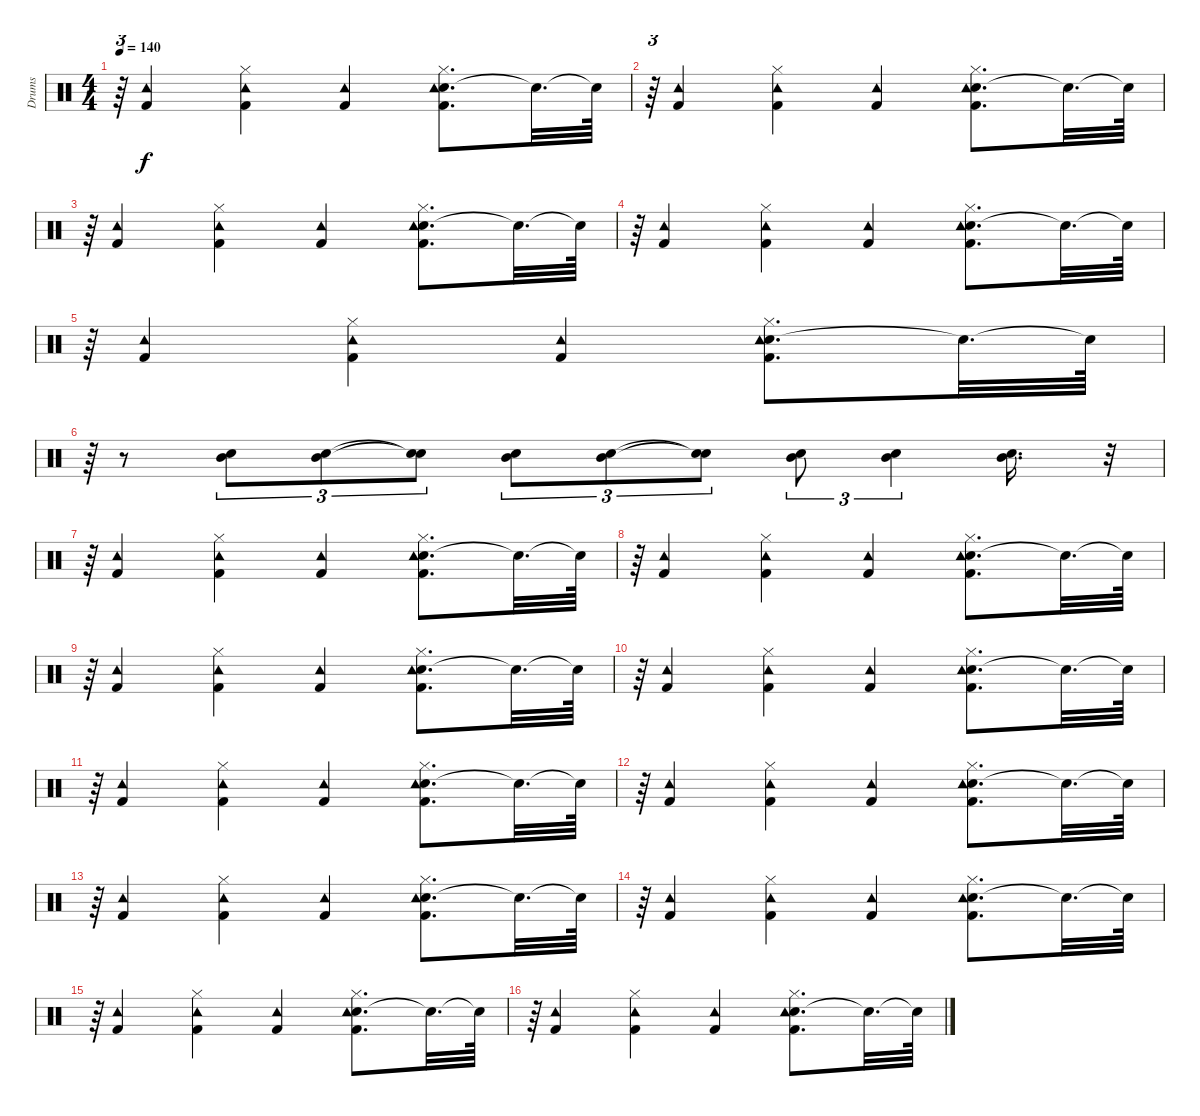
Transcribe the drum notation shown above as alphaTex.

\track ("Drums" "Drums") {instrument percussion}
\staff {score}
\articulation defaults
\ts (4 4)
\tempo 140
\clef neutral
\ks c
r.64{tu (3 2) dy f} ("Tambourine (hit)" "Kick (hit) 2").4 ("Hi-Hat (closed)" "Tambourine (hit)" "Kick (hit) 2").4 ("Tambourine (hit)" "Kick (hit) 2").4 ("Electric Snare (hit)" "Hi-Hat (closed)" "Tambourine (hit)" "Kick (hit) 2").8{d} "Snare (hit)"{t}.32{d} "Snare (hit)"{t}.64 |
r.64{tu (3 2)} ("Tambourine (hit)" "Kick (hit) 2").4 ("Hi-Hat (closed)" "Tambourine (hit)" "Kick (hit) 2").4 ("Tambourine (hit)" "Kick (hit) 2").4 ("Electric Snare (hit)" "Hi-Hat (closed)" "Tambourine (hit)" "Kick (hit) 2").8{d} "Snare (hit)"{t}.32{d} "Snare (hit)"{t}.64 |
r.64{tu (3 2)} ("Tambourine (hit)" "Kick (hit) 2").4 ("Hi-Hat (closed)" "Tambourine (hit)" "Kick (hit) 2").4 ("Tambourine (hit)" "Kick (hit) 2").4 ("Electric Snare (hit)" "Hi-Hat (closed)" "Tambourine (hit)" "Kick (hit) 2").8{d} "Snare (hit)"{t}.32{d} "Snare (hit)"{t}.64 |
r.64{tu (3 2)} ("Tambourine (hit)" "Kick (hit) 2").4 ("Hi-Hat (closed)" "Tambourine (hit)" "Kick (hit) 2").4 ("Tambourine (hit)" "Kick (hit) 2").4 ("Electric Snare (hit)" "Hi-Hat (closed)" "Tambourine (hit)" "Kick (hit) 2").8{d} "Snare (hit)"{t}.32{d} "Snare (hit)"{t}.64 |
r.64{tu (3 2)} ("Tambourine (hit)" "Kick (hit) 2").4 ("Hi-Hat (closed)" "Tambourine (hit)" "Kick (hit) 2").4 ("Tambourine (hit)" "Kick (hit) 2").4 ("Electric Snare (hit)" "Hi-Hat (closed)" "Tambourine (hit)" "Kick (hit) 2").8{d} "Snare (hit)"{t}.32{d} "Snare (hit)"{t}.64 |
r.64{tu (3 2)} r.8 ("Mid Tom (hit)" "Electric Snare (hit)").8{tu (3 2)} ("Mid Tom (hit)" "Electric Snare (hit)").8{tu (3 2)} ("Snare (hit)"{t} "Snare (hit)"{t}).8{tu (3 2)} ("Mid Tom (hit)" "Electric Snare (hit)").8{tu (3 2)} ("Mid Tom (hit)" "Electric Snare (hit)").8{tu (3 2)} ("Snare (hit)"{t} "Snare (hit)"{t}).8{tu (3 2)} ("Mid Tom (hit)" "Electric Snare (hit)").8{tu (3 2)} ("Mid Tom (hit)" "Electric Snare (hit)").4{tu (3 2)} ("Mid Tom (hit)" "Electric Snare (hit)").16{d} r.32{tu (3 2)} |
r.64{tu (3 2)} ("Tambourine (hit)" "Kick (hit) 2").4 ("Hi-Hat (closed)" "Tambourine (hit)" "Kick (hit) 2").4 ("Tambourine (hit)" "Kick (hit) 2").4 ("Electric Snare (hit)" "Hi-Hat (closed)" "Tambourine (hit)" "Kick (hit) 2").8{d} "Snare (hit)"{t}.32{d} "Snare (hit)"{t}.64 |
r.64{tu (3 2)} ("Tambourine (hit)" "Kick (hit) 2").4 ("Hi-Hat (closed)" "Tambourine (hit)" "Kick (hit) 2").4 ("Tambourine (hit)" "Kick (hit) 2").4 ("Electric Snare (hit)" "Hi-Hat (closed)" "Tambourine (hit)" "Kick (hit) 2").8{d} "Snare (hit)"{t}.32{d} "Snare (hit)"{t}.64 |
r.64{tu (3 2)} ("Tambourine (hit)" "Kick (hit) 2").4 ("Hi-Hat (closed)" "Tambourine (hit)" "Kick (hit) 2").4 ("Tambourine (hit)" "Kick (hit) 2").4 ("Electric Snare (hit)" "Hi-Hat (closed)" "Tambourine (hit)" "Kick (hit) 2").8{d} "Snare (hit)"{t}.32{d} "Snare (hit)"{t}.64 |
r.64{tu (3 2)} ("Tambourine (hit)" "Kick (hit) 2").4 ("Hi-Hat (closed)" "Tambourine (hit)" "Kick (hit) 2").4 ("Tambourine (hit)" "Kick (hit) 2").4 ("Electric Snare (hit)" "Hi-Hat (closed)" "Tambourine (hit)" "Kick (hit) 2").8{d} "Snare (hit)"{t}.32{d} "Snare (hit)"{t}.64 |
r.64{tu (3 2)} ("Tambourine (hit)" "Kick (hit) 2").4 ("Hi-Hat (closed)" "Tambourine (hit)" "Kick (hit) 2").4 ("Tambourine (hit)" "Kick (hit) 2").4 ("Electric Snare (hit)" "Hi-Hat (closed)" "Tambourine (hit)" "Kick (hit) 2").8{d} "Snare (hit)"{t}.32{d} "Snare (hit)"{t}.64 |
r.64{tu (3 2)} ("Tambourine (hit)" "Kick (hit) 2").4 ("Hi-Hat (closed)" "Tambourine (hit)" "Kick (hit) 2").4 ("Tambourine (hit)" "Kick (hit) 2").4 ("Electric Snare (hit)" "Hi-Hat (closed)" "Tambourine (hit)" "Kick (hit) 2").8{d} "Snare (hit)"{t}.32{d} "Snare (hit)"{t}.64 |
r.64{tu (3 2)} ("Tambourine (hit)" "Kick (hit) 2").4 ("Hi-Hat (closed)" "Tambourine (hit)" "Kick (hit) 2").4 ("Tambourine (hit)" "Kick (hit) 2").4 ("Electric Snare (hit)" "Hi-Hat (closed)" "Tambourine (hit)" "Kick (hit) 2").8{d} "Snare (hit)"{t}.32{d} "Snare (hit)"{t}.64 |
r.64{tu (3 2)} ("Tambourine (hit)" "Kick (hit) 2").4 ("Hi-Hat (closed)" "Tambourine (hit)" "Kick (hit) 2").4 ("Tambourine (hit)" "Kick (hit) 2").4 ("Electric Snare (hit)" "Hi-Hat (closed)" "Tambourine (hit)" "Kick (hit) 2").8{d} "Snare (hit)"{t}.32{d} "Snare (hit)"{t}.64 |
r.64{tu (3 2)} ("Tambourine (hit)" "Kick (hit) 2").4 ("Hi-Hat (closed)" "Tambourine (hit)" "Kick (hit) 2").4 ("Tambourine (hit)" "Kick (hit) 2").4 ("Electric Snare (hit)" "Hi-Hat (closed)" "Tambourine (hit)" "Kick (hit) 2").8{d} "Snare (hit)"{t}.32{d} "Snare (hit)"{t}.64 |
r.64{tu (3 2)} ("Tambourine (hit)" "Kick (hit) 2").4 ("Hi-Hat (closed)" "Tambourine (hit)" "Kick (hit) 2").4 ("Tambourine (hit)" "Kick (hit) 2").4 ("Electric Snare (hit)" "Hi-Hat (closed)" "Tambourine (hit)" "Kick (hit) 2").8{d} "Snare (hit)"{t}.32{d} "Snare (hit)"{t}.64
